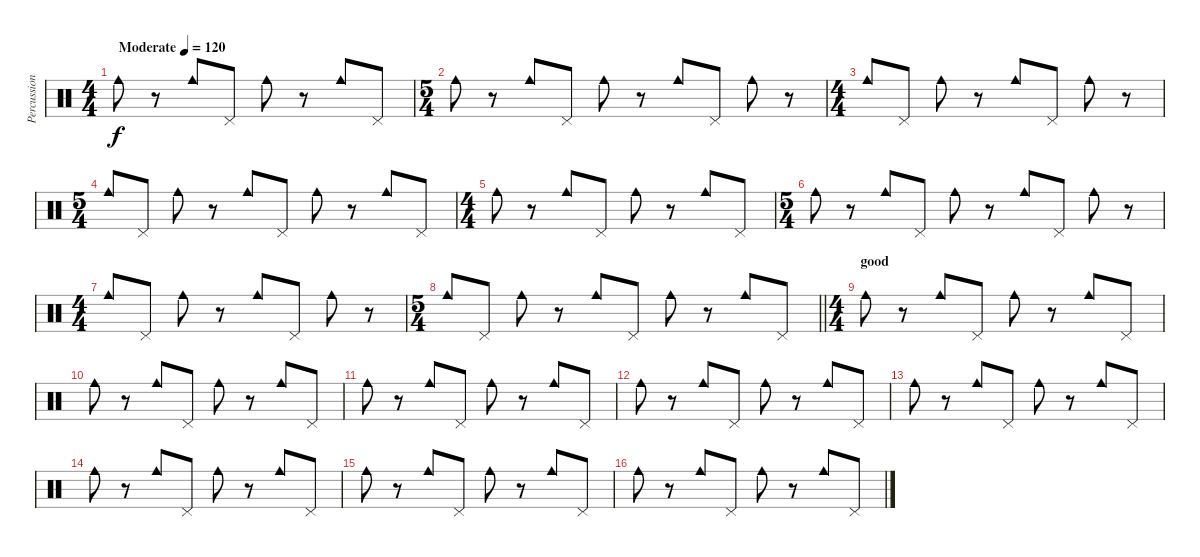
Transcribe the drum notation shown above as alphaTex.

\track ("Percussion" "Percussion") {instrument percussion}
\staff {score}
\articulation defaults
\ts (4 4)
\tempo (120 "Moderate")
\clef neutral
\ks c "Cowbell medium (hit)".8{dy f}
r.8 "Cowbell medium (hit)".8 "Pedal Hi-Hat (hit)".8 "Cowbell medium (hit)".8 r.8 "Cowbell medium (hit)".8 "Pedal Hi-Hat (hit)".8 |
\ts (5 4)
"Cowbell medium (hit)".8 r.8 "Cowbell medium (hit)".8 "Pedal Hi-Hat (hit)".8 "Cowbell medium (hit)".8 r.8 "Cowbell medium (hit)".8 "Pedal Hi-Hat (hit)".8 "Cowbell medium (hit)".8 r.8 |
\ts (4 4)
"Cowbell medium (hit)".8 "Pedal Hi-Hat (hit)".8 "Cowbell medium (hit)".8 r.8 "Cowbell medium (hit)".8 "Pedal Hi-Hat (hit)".8 "Cowbell medium (hit)".8 r.8 |
\ts (5 4)
"Cowbell medium (hit)".8 "Pedal Hi-Hat (hit)".8 "Cowbell medium (hit)".8 r.8 "Cowbell medium (hit)".8 "Pedal Hi-Hat (hit)".8 "Cowbell medium (hit)".8 r.8 "Cowbell medium (hit)".8 "Pedal Hi-Hat (hit)".8 |
\ts (4 4)
"Cowbell medium (hit)".8 r.8 "Cowbell medium (hit)".8 "Pedal Hi-Hat (hit)".8 "Cowbell medium (hit)".8 r.8 "Cowbell medium (hit)".8 "Pedal Hi-Hat (hit)".8 |
\ts (5 4)
"Cowbell medium (hit)".8 r.8 "Cowbell medium (hit)".8 "Pedal Hi-Hat (hit)".8 "Cowbell medium (hit)".8 r.8 "Cowbell medium (hit)".8 "Pedal Hi-Hat (hit)".8 "Cowbell medium (hit)".8 r.8 |
\ts (4 4)
"Cowbell medium (hit)".8 "Pedal Hi-Hat (hit)".8 "Cowbell medium (hit)".8 r.8 "Cowbell medium (hit)".8 "Pedal Hi-Hat (hit)".8 "Cowbell medium (hit)".8 r.8 |
\ts (5 4)
\barLineRight lightlight "Cowbell medium (hit)".8 "Pedal Hi-Hat (hit)".8 "Cowbell medium (hit)".8
r.8 "Cowbell medium (hit)".8 "Pedal Hi-Hat (hit)".8 "Cowbell medium (hit)".8 r.8 "Cowbell medium (hit)".8 "Pedal Hi-Hat (hit)".8 |
\ts (4 4)
\section ("" "good")
"Cowbell medium (hit)".8 r.8 "Cowbell medium (hit)".8 "Pedal Hi-Hat (hit)".8 "Cowbell medium (hit)".8 r.8 "Cowbell medium (hit)".8 "Pedal Hi-Hat (hit)".8 |
"Cowbell medium (hit)".8 r.8 "Cowbell medium (hit)".8 "Pedal Hi-Hat (hit)".8 "Cowbell medium (hit)".8 r.8 "Cowbell medium (hit)".8 "Pedal Hi-Hat (hit)".8 |
"Cowbell medium (hit)".8 r.8 "Cowbell medium (hit)".8 "Pedal Hi-Hat (hit)".8 "Cowbell medium (hit)".8 r.8 "Cowbell medium (hit)".8 "Pedal Hi-Hat (hit)".8 |
"Cowbell medium (hit)".8 r.8 "Cowbell medium (hit)".8 "Pedal Hi-Hat (hit)".8 "Cowbell medium (hit)".8 r.8 "Cowbell medium (hit)".8 "Pedal Hi-Hat (hit)".8 |
"Cowbell medium (hit)".8 r.8 "Cowbell medium (hit)".8 "Pedal Hi-Hat (hit)".8 "Cowbell medium (hit)".8 r.8 "Cowbell medium (hit)".8 "Pedal Hi-Hat (hit)".8 |
"Cowbell medium (hit)".8 r.8 "Cowbell medium (hit)".8 "Pedal Hi-Hat (hit)".8 "Cowbell medium (hit)".8 r.8 "Cowbell medium (hit)".8 "Pedal Hi-Hat (hit)".8 |
"Cowbell medium (hit)".8 r.8 "Cowbell medium (hit)".8 "Pedal Hi-Hat (hit)".8 "Cowbell medium (hit)".8 r.8 "Cowbell medium (hit)".8 "Pedal Hi-Hat (hit)".8 |
"Cowbell medium (hit)".8 r.8 "Cowbell medium (hit)".8 "Pedal Hi-Hat (hit)".8 "Cowbell medium (hit)".8 r.8 "Cowbell medium (hit)".8 "Pedal Hi-Hat (hit)".8
